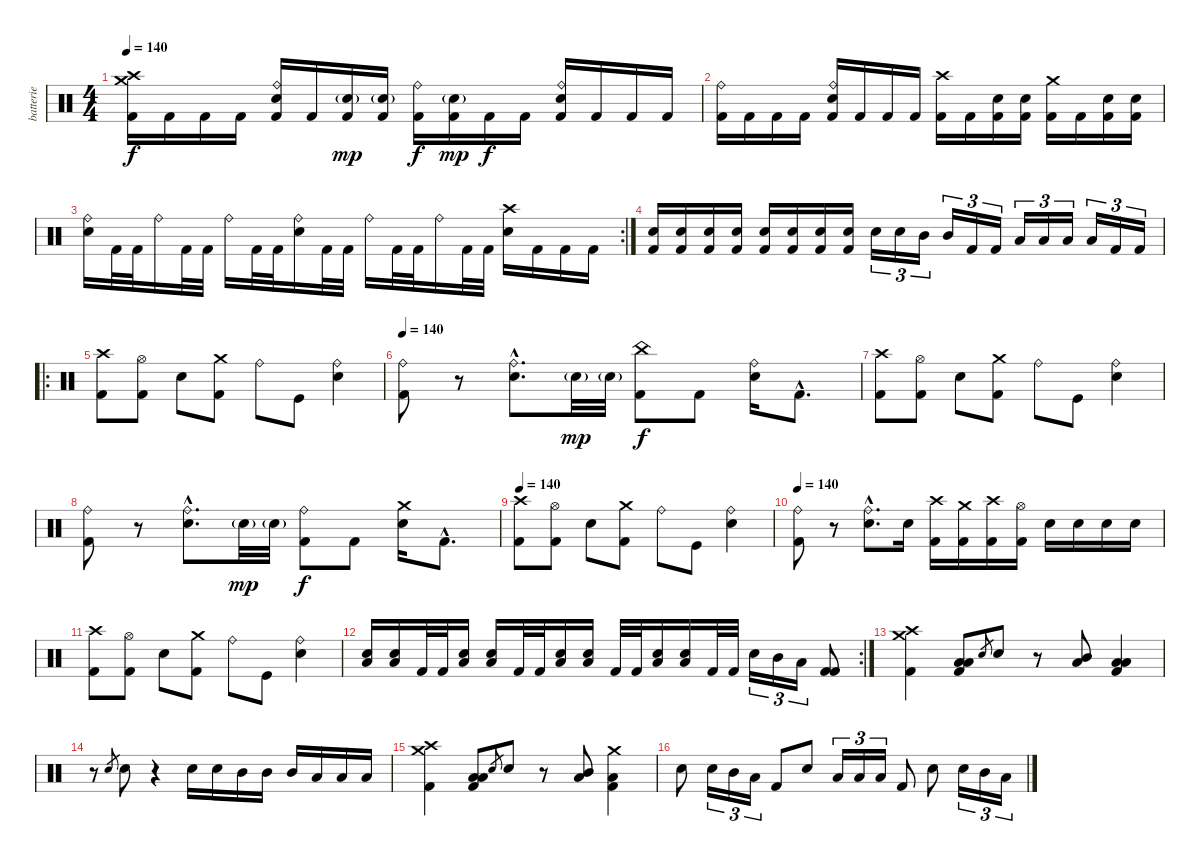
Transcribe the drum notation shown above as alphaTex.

\track ("batterie" "batterie") {instrument percussion}
\staff {score}
\articulation defaults
\ts (4 4)
\tempo 140
\clef neutral
\ks c
("Crash high (hit)" "Crash medium (hit)" "Kick (hit) 2").16{dy f} "Kick (hit) 2".16 "Kick (hit) 2".16 "Kick (hit) 2".16 ("Ride (bell)" "Electric Snare (hit)" "Kick (hit) 2").16 "Kick (hit) 2".16 ("Electric Snare (hit)"{g} "Kick (hit) 2").16{dy mp} ("Electric Snare (hit)"{g} "Kick (hit) 2").16 ("Ride (bell)" "Kick (hit) 2").16{dy f} ("Electric Snare (hit)"{g} "Kick (hit) 2").16{dy mp} "Kick (hit) 2".16{dy f} "Kick (hit) 2".16 ("Ride (bell)" "Electric Snare (hit)" "Kick (hit) 2").16 "Kick (hit) 2".16 "Kick (hit) 2".16 "Kick (hit) 2".16 |
("Ride (bell)" "Kick (hit) 2").16 "Kick (hit) 2".16 "Kick (hit) 2".16 "Kick (hit) 2".16 ("Ride (bell)" "Electric Snare (hit)" "Kick (hit) 2").16 "Kick (hit) 2".16 "Kick (hit) 2".16 "Kick (hit) 2".16 ("Crash high (hit)" "Kick (hit) 2").16 "Kick (hit) 2".16 ("Electric Snare (hit)" "Kick (hit) 2").16 ("Electric Snare (hit)" "Kick (hit) 2").16 ("Crash medium (hit)" "Kick (hit) 2").16 "Kick (hit) 2".16 ("Electric Snare (hit)" "Kick (hit) 2").16 ("Electric Snare (hit)" "Kick (hit) 2").16 |
\rc 2
("Ride (bell)" "Electric Snare (hit)").16 "Kick (hit) 2".32 "Kick (hit) 2".32 "Ride (bell)".16 "Kick (hit) 2".32 "Kick (hit) 2".32 "Ride (bell)".16 "Kick (hit) 2".32 "Kick (hit) 2".32 ("Ride (bell)" "Electric Snare (hit)").16 "Kick (hit) 2".32 "Kick (hit) 2".32 "Ride (bell)".16 "Kick (hit) 2".32 "Kick (hit) 2".32 "Ride (bell)".16 "Kick (hit) 2".32 "Kick (hit) 2".32 ("Crash high (hit)" "Electric Snare (hit)").16 "Kick (hit) 2".16 "Kick (hit) 2".16 "Kick (hit) 2".16 |
("Electric Snare (hit)" "Kick (hit) 2").16 ("Electric Snare (hit)" "Kick (hit) 2").16 ("Electric Snare (hit)" "Kick (hit) 2").16 ("Electric Snare (hit)" "Kick (hit) 2").16 ("Electric Snare (hit)" "Kick (hit) 2").16 ("Electric Snare (hit)" "Kick (hit) 2").16 ("Electric Snare (hit)" "Kick (hit) 2").16 ("Electric Snare (hit)" "Kick (hit) 2").16 "Electric Snare (hit)".16{tu (3 2)} "Electric Snare (hit)".16{tu (3 2)} "Mid Tom (hit)".16{tu (3 2)} "Mid Tom (hit)".16{tu (3 2)} "Kick (hit) 2".16{tu (3 2)} "Kick (hit) 2".16{tu (3 2)} "Low Tom (hit)".16{tu (3 2)} "Low Tom (hit)".16{tu (3 2)} "Low Floor Tom (hit)".16{tu (3 2)} "Low Floor Tom (hit)".16{tu (3 2)} "Kick (hit) 2".16{tu (3 2)} "Kick (hit) 2".16{tu (3 2)} |
\ro
("Crash high (hit)" "Kick (hit) 2").8 ("Hi-Hat (open)" "Kick (hit) 2").8 "Electric Snare (hit)".8 ("Crash medium (hit)" "Kick (hit) 2").8 "Ride (bell)".8 "Kick (hit)".8 ("Ride (bell)" "Electric Snare (hit)").4 |
\tempo 140
("Ride (bell)" "Kick (hit) 2").8 r.8 ("Ride (bell)"{hac} "Electric Snare (hit)"{hac}).8{d} "Electric Snare (hit)"{g}.32{dy mp} "Electric Snare (hit)"{g}.32 ("China (hit)" "Kick (hit) 2").8{dy f} "Kick (hit) 2".8 ("Ride (bell)" "Electric Snare (hit)").16 "Kick (hit) 2"{hac}.8{d} |
("Crash high (hit)" "Kick (hit) 2").8 ("Hi-Hat (open)" "Kick (hit) 2").8 "Electric Snare (hit)".8 ("Crash medium (hit)" "Kick (hit) 2").8 "Ride (bell)".8 "Kick (hit)".8 ("Ride (bell)" "Electric Snare (hit)").4 |
("Ride (bell)" "Kick (hit) 2").8 r.8 ("Ride (bell)"{hac} "Electric Snare (hit)"{hac}).8{d} "Electric Snare (hit)"{g}.32{dy mp} "Electric Snare (hit)"{g}.32 ("Ride (bell)" "Kick (hit) 2").8{dy f} "Kick (hit) 2".8 ("Crash medium (hit)" "Electric Snare (hit)").16 "Kick (hit) 2"{hac}.8{d} |
\tempo 140
("Crash high (hit)" "Kick (hit) 2").8 ("Hi-Hat (open)" "Kick (hit) 2").8 "Electric Snare (hit)".8 ("Crash medium (hit)" "Kick (hit) 2").8 "Ride (bell)".8 "Kick (hit)".8 ("Ride (bell)" "Electric Snare (hit)").4 |
\tempo 140
("Ride (bell)" "Kick (hit) 2").8 r.8 ("Ride (bell)"{hac} "Electric Snare (hit)"{hac}).8{d} "Electric Snare (hit)".16 ("Crash high (hit)" "Kick (hit) 2").16 ("Crash medium (hit)" "Kick (hit) 2").16 ("Crash high (hit)" "Kick (hit) 2").16 ("Hi-Hat (open)" "Kick (hit) 2").16 "Electric Snare (hit)".16 "Electric Snare (hit)".16 "Electric Snare (hit)".16 "Electric Snare (hit)".16 |
("Crash high (hit)" "Kick (hit) 2").8 ("Hi-Hat (open)" "Kick (hit) 2").8 "Electric Snare (hit)".8 ("Crash medium (hit)" "Kick (hit) 2").8 "Ride (bell)".8 "Kick (hit)".8 ("Ride (bell)" "Electric Snare (hit)").4 |
\rc 2
("Electric Snare (hit)" "Low Floor Tom (hit)").16 ("Electric Snare (hit)" "Low Floor Tom (hit)").16 "Kick (hit) 2".32 "Kick (hit) 2".32 ("Electric Snare (hit)" "Low Floor Tom (hit)").16 ("Electric Snare (hit)" "Low Floor Tom (hit)").16 "Kick (hit) 2".32 "Kick (hit) 2".32 ("Electric Snare (hit)" "Low Floor Tom (hit)").16 ("Electric Snare (hit)" "Low Floor Tom (hit)").16 "Kick (hit) 2".32 "Kick (hit) 2".32 ("Electric Snare (hit)" "Low Floor Tom (hit)").16 ("Electric Snare (hit)" "Low Floor Tom (hit)").16 "Kick (hit) 2".32 "Kick (hit) 2".32 "Electric Snare (hit)".16{tu (3 2)} "Mid Tom (hit)".16{tu (3 2)} "Low Floor Tom (hit)".16{tu (3 2)} ("Kick (hit) 2" "Kick (hit) 2").8 |
("Crash high (hit)" "Crash medium (hit)" "Kick (hit) 2").4{volume 12} ("Low Tom (hit)" "Low Floor Tom (hit)" "Kick (hit) 2").8 "Electric Snare (hit)".8{gr} "Electric Snare (hit)".8 r.8 ("Mid Tom (hit)" "Low Tom (hit)").8 ("Low Tom (hit)" "Low Floor Tom (hit)" "Kick (hit) 2").4 |
r.8 "Electric Snare (hit)".8{gr} "Electric Snare (hit)".8 r.4 "Electric Snare (hit)".16 "Electric Snare (hit)".16 "Mid Tom (hit)".16 "Mid Tom (hit)".16 "Mid Tom (hit)".16 "Low Tom (hit)".16 "Low Floor Tom (hit)".16 "Low Floor Tom (hit)".16 |
("Crash high (hit)" "Crash medium (hit)" "Kick (hit) 2").4 ("Low Tom (hit)" "Low Floor Tom (hit)" "Kick (hit) 2").8 "Electric Snare (hit)".8{gr} "Electric Snare (hit)".8 r.8 ("Mid Tom (hit)" "Low Tom (hit)").8 ("Crash medium (hit)" "Low Floor Tom (hit)" "Kick (hit) 2").4 |
"Electric Snare (hit)".8 "Electric Snare (hit)".16{tu (3 2)} "Mid Tom (hit)".16{tu (3 2)} "Low Floor Tom (hit)".16{tu (3 2)} "Kick (hit) 2".8 "Electric Snare (hit)".8 "Low Tom (hit)".16{tu (3 2)} "Low Tom (hit)".16{tu (3 2)} "Low Floor Tom (hit)".16{tu (3 2)} "Kick (hit) 2".8 "Electric Snare (hit)".8 "Electric Snare (hit)".16{tu (3 2)} "Mid Tom (hit)".16{tu (3 2)} "Low Floor Tom (hit)".16{tu (3 2)}
